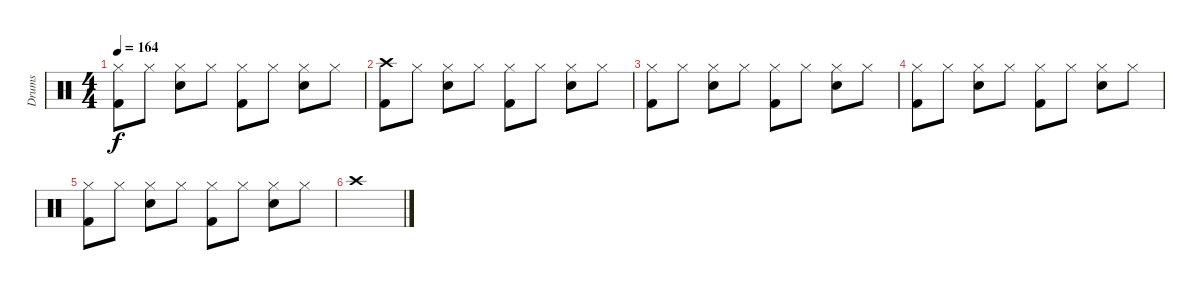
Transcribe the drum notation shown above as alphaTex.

\track ("Drums" "Drums") {instrument percussion}
\staff {score}
\articulation defaults
\ts (4 4)
\tempo 164
\clef neutral
\ks c
("Hi-Hat (closed)" "Kick (hit) 2").8{dy f} "Hi-Hat (closed)".8 ("Hi-Hat (closed)" "Snare (hit) 2").8 "Hi-Hat (closed)".8 ("Hi-Hat (closed)" "Kick (hit) 2").8 "Hi-Hat (closed)".8 ("Hi-Hat (closed)" "Snare (hit) 2").8 "Hi-Hat (closed)".8 |
("Crash high (hit)" "Kick (hit) 2").8 "Hi-Hat (closed)".8 ("Hi-Hat (closed)" "Snare (hit) 2").8 "Hi-Hat (closed)".8 ("Hi-Hat (closed)" "Kick (hit) 2").8 "Hi-Hat (closed)".8 ("Hi-Hat (closed)" "Snare (hit) 2").8 "Hi-Hat (closed)".8 |
("Hi-Hat (closed)" "Kick (hit) 2").8 "Hi-Hat (closed)".8 ("Hi-Hat (closed)" "Snare (hit) 2").8 "Hi-Hat (closed)".8 ("Hi-Hat (closed)" "Kick (hit) 2").8 "Hi-Hat (closed)".8 ("Hi-Hat (closed)" "Snare (hit) 2").8 "Hi-Hat (closed)".8 |
("Hi-Hat (closed)" "Kick (hit) 2").8 "Hi-Hat (closed)".8 ("Hi-Hat (closed)" "Snare (hit) 2").8 "Hi-Hat (closed)".8 ("Hi-Hat (closed)" "Kick (hit) 2").8 "Hi-Hat (closed)".8 ("Hi-Hat (closed)" "Snare (hit) 2").8 "Hi-Hat (closed)".8 |
("Hi-Hat (closed)" "Kick (hit) 2").8 "Hi-Hat (closed)".8 ("Hi-Hat (closed)" "Snare (hit) 2").8 "Hi-Hat (closed)".8 ("Hi-Hat (closed)" "Kick (hit) 2").8 "Hi-Hat (closed)".8 ("Hi-Hat (closed)" "Snare (hit) 2").8 "Hi-Hat (closed)".8 |
"Crash high (hit)".1
